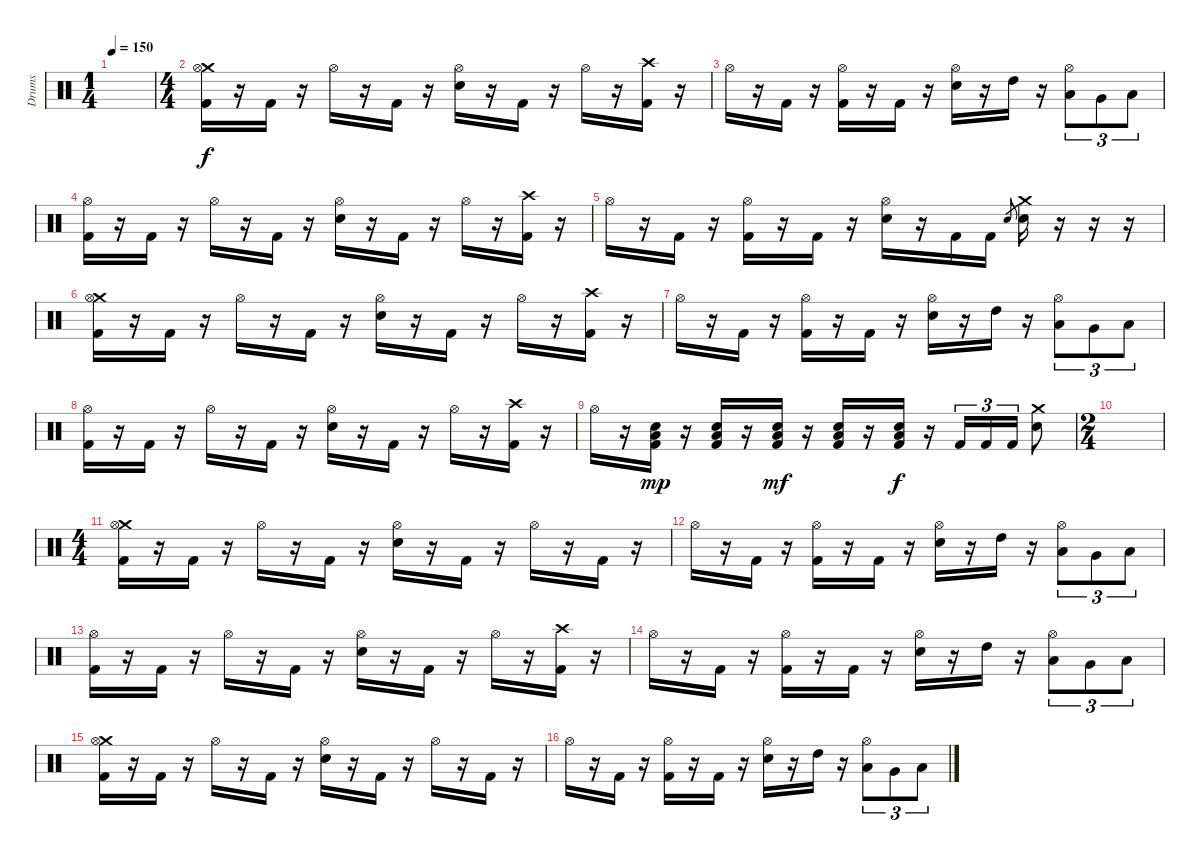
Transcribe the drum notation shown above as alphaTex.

\track ("Drums" "Drums") {instrument percussion}
\staff {score}
\articulation defaults
\ts (1 4)
\tempo 150
\clef neutral
\ks c
|
\ts (4 4)
("Crash medium (hit)" "Hi-Hat (open)" "Kick (hit) 2").16 r.16 "Kick (hit) 2".16 r.16 "Hi-Hat (open)".16 r.16 "Kick (hit) 2".16 r.16 ("Hi-Hat (open)" "Electric Snare (hit)").16 r.16 "Kick (hit) 2".16 r.16 "Hi-Hat (open)".16 r.16 ("Crash high (hit)" "Kick (hit) 2").16 r.16 |
"Hi-Hat (open)".16 r.16 "Kick (hit) 2".16 r.16 ("Hi-Hat (open)" "Kick (hit) 2").16 r.16 "Kick (hit) 2".16 r.16 ("Hi-Hat (open)" "Electric Snare (hit)").16 r.16 "High Tom (hit)".16 r.16 ("Hi-Hat (open)" "Low Tom (hit)").8{tu (3 2)} "Very Low Tom (hit)".8{tu (3 2)} "Low Floor Tom (hit)".8{tu (3 2)} |
("Hi-Hat (open)" "Kick (hit) 2").16 r.16 "Kick (hit) 2".16 r.16 "Hi-Hat (open)".16 r.16 "Kick (hit) 2".16 r.16 ("Hi-Hat (open)" "Electric Snare (hit)").16 r.16 "Kick (hit) 2".16 r.16 "Hi-Hat (open)".16 r.16 ("Crash high (hit)" "Kick (hit) 2").16 r.16 |
"Hi-Hat (open)".16 r.16 "Kick (hit) 2".16 r.16 ("Hi-Hat (open)" "Kick (hit) 2").16 r.16 "Kick (hit) 2".16 r.16 ("Hi-Hat (open)" "Electric Snare (hit)").16 r.16 "Kick (hit) 2".16 "Kick (hit) 2".16 "Electric Snare (hit)".8{gr} ("Crash medium (hit)" "Electric Snare (hit)").16 r.16 r.16 r.16 |
("Crash medium (hit)" "Hi-Hat (open)" "Kick (hit) 2").16 r.16 "Kick (hit) 2".16 r.16 "Hi-Hat (open)".16 r.16 "Kick (hit) 2".16 r.16 ("Hi-Hat (open)" "Electric Snare (hit)").16 r.16 "Kick (hit) 2".16 r.16 "Hi-Hat (open)".16 r.16 ("Crash high (hit)" "Kick (hit) 2").16 r.16 |
"Hi-Hat (open)".16 r.16 "Kick (hit) 2".16 r.16 ("Hi-Hat (open)" "Kick (hit) 2").16 r.16 "Kick (hit) 2".16 r.16 ("Hi-Hat (open)" "Electric Snare (hit)").16 r.16 "High Tom (hit)".16 r.16 ("Hi-Hat (open)" "Low Tom (hit)").8{tu (3 2)} "Very Low Tom (hit)".8{tu (3 2)} "Low Floor Tom (hit)".8{tu (3 2)} |
("Hi-Hat (open)" "Kick (hit) 2").16 r.16 "Kick (hit) 2".16 r.16 "Hi-Hat (open)".16 r.16 "Kick (hit) 2".16 r.16 ("Hi-Hat (open)" "Electric Snare (hit)").16 r.16 "Kick (hit) 2".16 r.16 "Hi-Hat (open)".16 r.16 ("Crash high (hit)" "Kick (hit) 2").16 r.16 |
"Hi-Hat (open)".16 r.16 ("Low Tom (hit)" "Kick (hit) 2" "Electric Snare (hit)").16{dy mp} r.16 ("Low Tom (hit)" "Kick (hit) 2" "Electric Snare (hit)").16 r.16 ("Low Tom (hit)" "Kick (hit) 2" "Electric Snare (hit)").16{dy mf} r.16 ("Low Tom (hit)" "Electric Snare (hit)" "Kick (hit) 2").16 r.16 ("Low Tom (hit)" "Kick (hit) 2" "Electric Snare (hit)").16{dy f} r.16 "Kick (hit) 2".16{tu (3 2)} "Kick (hit) 2".16{tu (3 2)} "Kick (hit) 2".16{tu (3 2)} ("Crash medium (hit)" "Electric Snare (hit)").8 |
\ts (2 4)
|
\ts (4 4)
("Crash medium (hit)" "Hi-Hat (open)" "Kick (hit) 2").16 r.16 "Kick (hit) 2".16 r.16 "Hi-Hat (open)".16 r.16 "Kick (hit) 2".16 r.16 ("Hi-Hat (open)" "Electric Snare (hit)").16 r.16 "Kick (hit) 2".16 r.16 "Hi-Hat (open)".16 r.16 "Kick (hit) 2".16 r.16 |
"Hi-Hat (open)".16 r.16 "Kick (hit) 2".16 r.16 ("Hi-Hat (open)" "Kick (hit) 2").16 r.16 "Kick (hit) 2".16 r.16 ("Hi-Hat (open)" "Electric Snare (hit)").16 r.16 "High Tom (hit)".16 r.16 ("Hi-Hat (open)" "Low Tom (hit)").8{tu (3 2)} "Very Low Tom (hit)".8{tu (3 2)} "Low Floor Tom (hit)".8{tu (3 2)} |
("Hi-Hat (open)" "Kick (hit) 2").16 r.16 "Kick (hit) 2".16 r.16 "Hi-Hat (open)".16 r.16 "Kick (hit) 2".16 r.16 ("Hi-Hat (open)" "Electric Snare (hit)").16 r.16 "Kick (hit) 2".16 r.16 "Hi-Hat (open)".16 r.16 ("Crash high (hit)" "Kick (hit) 2").16 r.16 |
"Hi-Hat (open)".16 r.16 "Kick (hit) 2".16 r.16 ("Hi-Hat (open)" "Kick (hit) 2").16 r.16 "Kick (hit) 2".16 r.16 ("Hi-Hat (open)" "Electric Snare (hit)").16 r.16 "High Tom (hit)".16 r.16 ("Hi-Hat (open)" "Low Tom (hit)").8{tu (3 2)} "Very Low Tom (hit)".8{tu (3 2)} "Low Floor Tom (hit)".8{tu (3 2)} |
("Crash medium (hit)" "Hi-Hat (open)" "Kick (hit) 2").16 r.16 "Kick (hit) 2".16 r.16 "Hi-Hat (open)".16 r.16 "Kick (hit) 2".16 r.16 ("Hi-Hat (open)" "Electric Snare (hit)").16 r.16 "Kick (hit) 2".16 r.16 "Hi-Hat (open)".16 r.16 "Kick (hit) 2".16 r.16 |
"Hi-Hat (open)".16 r.16 "Kick (hit) 2".16 r.16 ("Hi-Hat (open)" "Kick (hit) 2").16 r.16 "Kick (hit) 2".16 r.16 ("Hi-Hat (open)" "Electric Snare (hit)").16 r.16 "High Tom (hit)".16 r.16 ("Hi-Hat (open)" "Low Tom (hit)").8{tu (3 2)} "Very Low Tom (hit)".8{tu (3 2)} "Low Floor Tom (hit)".8{tu (3 2)}
